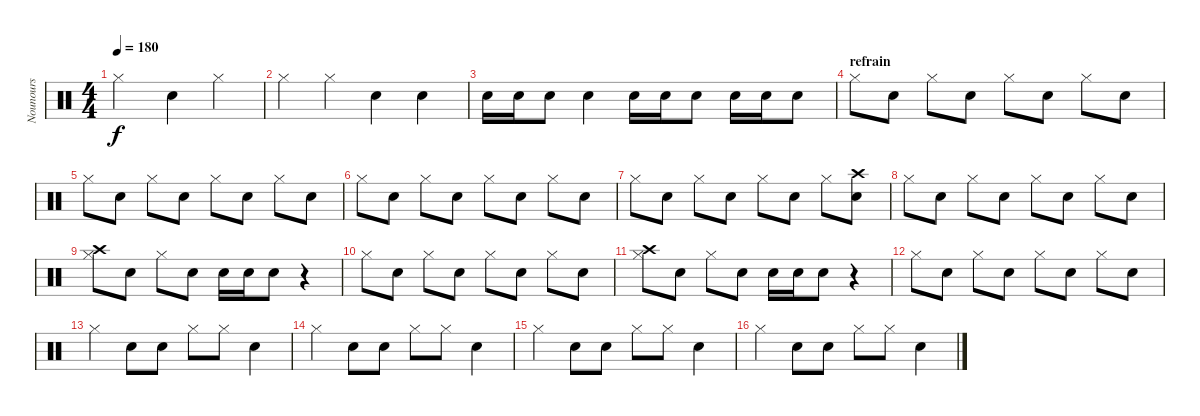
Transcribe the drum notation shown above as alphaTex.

\track ("Nounours" "Nounours") {instrument percussion}
\staff {score}
\articulation defaults
\ts (4 4)
\tempo 180
\clef neutral
\ks c "Hi-Hat (closed)".2{dy f} "Snare (hit) 2".4 "Hi-Hat (closed)".4
|
"Hi-Hat (closed)".4 "Hi-Hat (closed)".4 "Snare (hit) 2".4 "Snare (hit) 2".4 |
"Snare (hit) 2".16 "Snare (hit) 2".16 "Snare (hit) 2".8 "Snare (hit) 2".4 "Snare (hit) 2".16 "Snare (hit) 2".16 "Snare (hit) 2".8 "Snare (hit) 2".16 "Snare (hit) 2".16 "Snare (hit) 2".8 |
\section ("" "refrain")
"Hi-Hat (closed)".8 "Snare (hit) 2".8 "Hi-Hat (closed)".8 "Snare (hit) 2".8 "Hi-Hat (closed)".8 "Snare (hit) 2".8 "Hi-Hat (closed)".8 "Snare (hit) 2".8 |
"Hi-Hat (closed)".8 "Snare (hit) 2".8 "Hi-Hat (closed)".8 "Snare (hit) 2".8 "Hi-Hat (closed)".8 "Snare (hit) 2".8 "Hi-Hat (closed)".8 "Snare (hit) 2".8 |
"Hi-Hat (closed)".8 "Snare (hit) 2".8 "Hi-Hat (closed)".8 "Snare (hit) 2".8 "Hi-Hat (closed)".8 "Snare (hit) 2".8 "Hi-Hat (closed)".8 "Snare (hit) 2".8 |
"Hi-Hat (closed)".8 "Snare (hit) 2".8 "Hi-Hat (closed)".8 "Snare (hit) 2".8 "Hi-Hat (closed)".8 "Snare (hit) 2".8 "Hi-Hat (closed)".8 ("Crash high (hit)" "Snare (hit) 2").8 |
"Hi-Hat (closed)".8 "Snare (hit) 2".8 "Hi-Hat (closed)".8 "Snare (hit) 2".8 "Hi-Hat (closed)".8 "Snare (hit) 2".8 "Hi-Hat (closed)".8 "Snare (hit) 2".8 |
("Crash high (hit)" "Hi-Hat (closed)").8 "Snare (hit) 2".8 "Hi-Hat (closed)".8 "Snare (hit) 2".8 "Snare (hit) 2".16 "Snare (hit) 2".16 "Snare (hit) 2".8 r.4 |
"Hi-Hat (closed)".8 "Snare (hit) 2".8 "Hi-Hat (closed)".8 "Snare (hit) 2".8 "Hi-Hat (closed)".8 "Snare (hit) 2".8 "Hi-Hat (closed)".8 "Snare (hit) 2".8 |
("Crash high (hit)" "Hi-Hat (closed)").8 "Snare (hit) 2".8 "Hi-Hat (closed)".8 "Snare (hit) 2".8 "Snare (hit) 2".16 "Snare (hit) 2".16 "Snare (hit) 2".8 r.4 |
"Hi-Hat (closed)".8 "Snare (hit) 2".8 "Hi-Hat (closed)".8 "Snare (hit) 2".8 "Hi-Hat (closed)".8 "Snare (hit) 2".8 "Hi-Hat (closed)".8 "Snare (hit) 2".8 |
"Hi-Hat (closed)".4 "Snare (hit) 2".8 "Snare (hit) 2".8 "Hi-Hat (closed)".8 "Hi-Hat (closed)".8 "Snare (hit) 2".4 |
"Hi-Hat (closed)".4 "Snare (hit) 2".8 "Snare (hit) 2".8 "Hi-Hat (closed)".8 "Hi-Hat (closed)".8 "Snare (hit) 2".4 |
"Hi-Hat (closed)".4 "Snare (hit) 2".8 "Snare (hit) 2".8 "Hi-Hat (closed)".8 "Hi-Hat (closed)".8 "Snare (hit) 2".4 |
"Hi-Hat (closed)".4 "Snare (hit) 2".8 "Snare (hit) 2".8 "Hi-Hat (closed)".8 "Hi-Hat (closed)".8 "Snare (hit) 2".4
